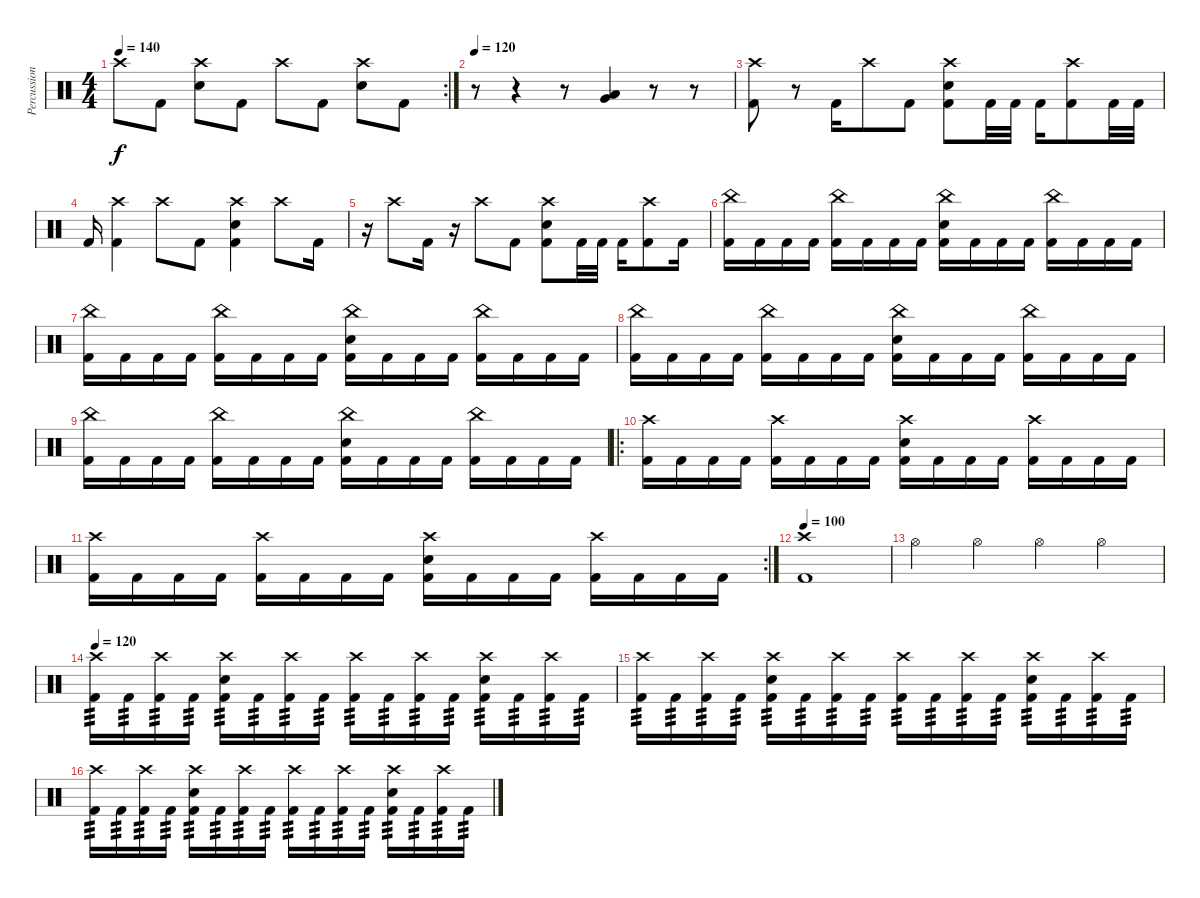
\track ("Percussion" "Percussion") {instrument percussion}
\staff {score}
\articulation defaults
\rc 2
\ts (4 4)
\tempo 140
\clef neutral
\ks c "Crash high (hit)".8{dy f} "Kick (hit) 2".8
("Crash high (hit)" "Electric Snare (hit)").8 "Kick (hit) 2".8 "Crash high (hit)".8 "Kick (hit) 2".8 ("Crash high (hit)" "Electric Snare (hit)").8 "Kick (hit) 2".8 |
\tempo 120
r.8 r.4 r.8 ("Very Low Tom (hit)" "Low Floor Tom (hit)").4 r.8 r.8 |
("Crash high (hit)" "Kick (hit) 2").8 r.8 "Kick (hit) 2".16 "Crash high (hit)".8 "Kick (hit) 2".8 ("Crash high (hit)" "Electric Snare (hit)" "Kick (hit) 2").8 "Kick (hit) 2".32 "Kick (hit) 2".32 "Kick (hit) 2".16 ("Crash high (hit)" "Kick (hit) 2").8 "Kick (hit) 2".32 "Kick (hit) 2".32 |
"Kick (hit) 2".16 ("Crash high (hit)" "Kick (hit) 2").4 "Crash high (hit)".8 "Kick (hit) 2".8 ("Crash high (hit)" "Electric Snare (hit)" "Kick (hit) 2").4 "Crash high (hit)".8 "Kick (hit) 2".16 |
r.16 "Crash high (hit)".8 "Kick (hit) 2".16 r.16 "Crash high (hit)".8 "Kick (hit) 2".8 ("Crash high (hit)" "Electric Snare (hit)" "Kick (hit) 2").8 "Kick (hit) 2".32 "Kick (hit) 2".32 "Kick (hit) 2".16 ("Crash high (hit)" "Kick (hit) 2").8 "Kick (hit) 2".16 |
("China (hit)" "Kick (hit) 2").16 "Kick (hit) 2".16 "Kick (hit) 2".16 "Kick (hit) 2".16 ("China (hit)" "Kick (hit) 2").16 "Kick (hit) 2".16 "Kick (hit) 2".16 "Kick (hit) 2".16 ("China (hit)" "Electric Snare (hit)" "Kick (hit) 2").16 "Kick (hit) 2".16 "Kick (hit) 2".16 "Kick (hit) 2".16 ("China (hit)" "Kick (hit) 2").16 "Kick (hit) 2".16 "Kick (hit) 2".16 "Kick (hit) 2".16 |
("China (hit)" "Kick (hit) 2").16 "Kick (hit) 2".16 "Kick (hit) 2".16 "Kick (hit) 2".16 ("China (hit)" "Kick (hit) 2").16 "Kick (hit) 2".16 "Kick (hit) 2".16 "Kick (hit) 2".16 ("China (hit)" "Electric Snare (hit)" "Kick (hit) 2").16 "Kick (hit) 2".16 "Kick (hit) 2".16 "Kick (hit) 2".16 ("China (hit)" "Kick (hit) 2").16 "Kick (hit) 2".16 "Kick (hit) 2".16 "Kick (hit) 2".16 |
("China (hit)" "Kick (hit) 2").16 "Kick (hit) 2".16 "Kick (hit) 2".16 "Kick (hit) 2".16 ("China (hit)" "Kick (hit) 2").16 "Kick (hit) 2".16 "Kick (hit) 2".16 "Kick (hit) 2".16 ("China (hit)" "Electric Snare (hit)" "Kick (hit) 2").16 "Kick (hit) 2".16 "Kick (hit) 2".16 "Kick (hit) 2".16 ("China (hit)" "Kick (hit) 2").16 "Kick (hit) 2".16 "Kick (hit) 2".16 "Kick (hit) 2".16 |
("China (hit)" "Kick (hit) 2").16 "Kick (hit) 2".16 "Kick (hit) 2".16 "Kick (hit) 2".16 ("China (hit)" "Kick (hit) 2").16 "Kick (hit) 2".16 "Kick (hit) 2".16 "Kick (hit) 2".16 ("China (hit)" "Electric Snare (hit)" "Kick (hit) 2").16 "Kick (hit) 2".16 "Kick (hit) 2".16 "Kick (hit) 2".16 ("China (hit)" "Kick (hit) 2").16 "Kick (hit) 2".16 "Kick (hit) 2".16 "Kick (hit) 2".16 |
\ro
("Crash high (hit)" "Kick (hit) 2").16 "Kick (hit) 2".16 "Kick (hit) 2".16 "Kick (hit) 2".16 ("Crash high (hit)" "Kick (hit) 2").16 "Kick (hit) 2".16 "Kick (hit) 2".16 "Kick (hit) 2".16 ("Crash high (hit)" "Electric Snare (hit)" "Kick (hit) 2").16 "Kick (hit) 2".16 "Kick (hit) 2".16 "Kick (hit) 2".16 ("Crash high (hit)" "Kick (hit) 2").16 "Kick (hit) 2".16 "Kick (hit) 2".16 "Kick (hit) 2".16 |
\rc 2
("Crash high (hit)" "Kick (hit) 2").16 "Kick (hit) 2".16 "Kick (hit) 2".16 "Kick (hit) 2".16 ("Crash high (hit)" "Kick (hit) 2").16 "Kick (hit) 2".16 "Kick (hit) 2".16 "Kick (hit) 2".16 ("Crash high (hit)" "Electric Snare (hit)" "Kick (hit) 2").16 "Kick (hit) 2".16 "Kick (hit) 2".16 "Kick (hit) 2".16 ("Crash high (hit)" "Kick (hit) 2").16 "Kick (hit) 2".16 "Kick (hit) 2".16 "Kick (hit) 2".16 |
\tempo 100
("Crash high (hit)" "Kick (hit) 2").1 |
"Hi-Hat (open)".4 "Hi-Hat (open)".4 "Hi-Hat (open)".4 "Hi-Hat (open)".4 |
\tempo 120
("Crash high (hit)" "Kick (hit) 2").16{tp 3} "Kick (hit) 2".16{tp 3} ("Crash high (hit)" "Kick (hit) 2").16{tp 3} "Kick (hit) 2".16{tp 3} ("Crash high (hit)" "Electric Snare (hit)" "Kick (hit) 2").16{tp 3} "Kick (hit) 2".16{tp 3} ("Crash high (hit)" "Kick (hit) 2").16{tp 3} "Kick (hit) 2".16{tp 3} ("Crash high (hit)" "Kick (hit) 2").16{tp 3} "Kick (hit) 2".16{tp 3} ("Crash high (hit)" "Kick (hit) 2").16{tp 3} "Kick (hit) 2".16{tp 3} ("Crash high (hit)" "Electric Snare (hit)" "Kick (hit) 2").16{tp 3} "Kick (hit) 2".16{tp 3} ("Crash high (hit)" "Kick (hit) 2").16{tp 3} "Kick (hit) 2".16{tp 3} |
("Crash high (hit)" "Kick (hit) 2").16{tp 3} "Kick (hit) 2".16{tp 3} ("Crash high (hit)" "Kick (hit) 2").16{tp 3} "Kick (hit) 2".16{tp 3} ("Crash high (hit)" "Electric Snare (hit)" "Kick (hit) 2").16{tp 3} "Kick (hit) 2".16{tp 3} ("Crash high (hit)" "Kick (hit) 2").16{tp 3} "Kick (hit) 2".16{tp 3} ("Crash high (hit)" "Kick (hit) 2").16{tp 3} "Kick (hit) 2".16{tp 3} ("Crash high (hit)" "Kick (hit) 2").16{tp 3} "Kick (hit) 2".16{tp 3} ("Crash high (hit)" "Electric Snare (hit)" "Kick (hit) 2").16{tp 3} "Kick (hit) 2".16{tp 3} ("Crash high (hit)" "Kick (hit) 2").16{tp 3} "Kick (hit) 2".16{tp 3} |
("Crash high (hit)" "Kick (hit) 2").16{tp 3} "Kick (hit) 2".16{tp 3} ("Crash high (hit)" "Kick (hit) 2").16{tp 3} "Kick (hit) 2".16{tp 3} ("Crash high (hit)" "Electric Snare (hit)" "Kick (hit) 2").16{tp 3} "Kick (hit) 2".16{tp 3} ("Crash high (hit)" "Kick (hit) 2").16{tp 3} "Kick (hit) 2".16{tp 3} ("Crash high (hit)" "Kick (hit) 2").16{tp 3} "Kick (hit) 2".16{tp 3} ("Crash high (hit)" "Kick (hit) 2").16{tp 3} "Kick (hit) 2".16{tp 3} ("Crash high (hit)" "Electric Snare (hit)" "Kick (hit) 2").16{tp 3} "Kick (hit) 2".16{tp 3} ("Crash high (hit)" "Kick (hit) 2").16{tp 3} "Kick (hit) 2".16{tp 3}
